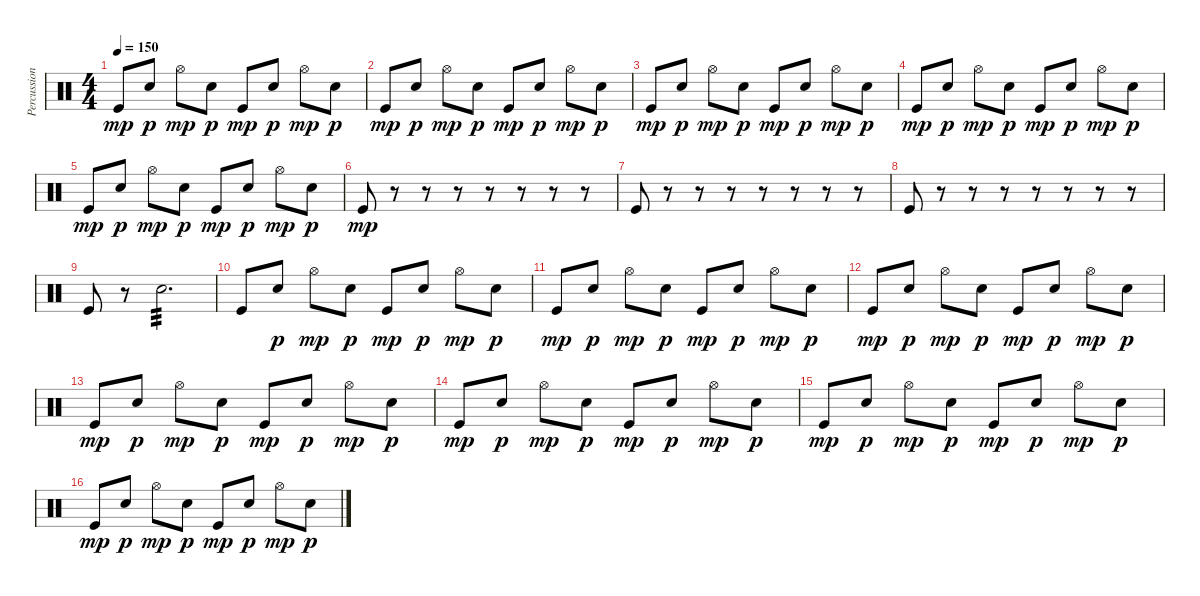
\track ("Percussion" "Percussion") {instrument percussion}
\staff {score}
\articulation defaults
\ts (4 4)
\tempo 150
\clef neutral
\ks c "Kick (hit)".8{dy mp} "Electric Snare (hit)".8{dy p} "Hi-Hat (open)".8{dy mp} "Electric Snare (hit)".8{dy p} "Kick (hit)".8{dy mp} "Electric Snare (hit)".8{dy p} "Hi-Hat (open)".8{dy mp} "Electric Snare (hit)".8{dy p}
|
"Kick (hit)".8{dy mp} "Electric Snare (hit)".8{dy p} "Hi-Hat (open)".8{dy mp} "Electric Snare (hit)".8{dy p} "Kick (hit)".8{dy mp} "Electric Snare (hit)".8{dy p} "Hi-Hat (open)".8{dy mp} "Electric Snare (hit)".8{dy p} |
"Kick (hit)".8{dy mp} "Electric Snare (hit)".8{dy p} "Hi-Hat (open)".8{dy mp} "Electric Snare (hit)".8{dy p} "Kick (hit)".8{dy mp} "Electric Snare (hit)".8{dy p} "Hi-Hat (open)".8{dy mp} "Electric Snare (hit)".8{dy p} |
"Kick (hit)".8{dy mp} "Electric Snare (hit)".8{dy p} "Hi-Hat (open)".8{dy mp} "Electric Snare (hit)".8{dy p} "Kick (hit)".8{dy mp} "Electric Snare (hit)".8{dy p} "Hi-Hat (open)".8{dy mp} "Electric Snare (hit)".8{dy p} |
"Kick (hit)".8{dy mp} "Electric Snare (hit)".8{dy p} "Hi-Hat (open)".8{dy mp} "Electric Snare (hit)".8{dy p} "Kick (hit)".8{dy mp} "Electric Snare (hit)".8{dy p} "Hi-Hat (open)".8{dy mp} "Electric Snare (hit)".8{dy p} |
"Kick (hit)".8{dy mp} r.8 r.8 r.8 r.8 r.8 r.8 r.8 |
"Kick (hit)".8 r.8 r.8 r.8 r.8 r.8 r.8 r.8 |
"Kick (hit)".8 r.8 r.8 r.8 r.8 r.8 r.8 r.8 |
"Kick (hit)".8 r.8{volume 0} "Electric Snare (hit)".2{d tp 3 volume 11} |
"Kick (hit)".8 "Electric Snare (hit)".8{dy p} "Hi-Hat (open)".8{dy mp} "Electric Snare (hit)".8{dy p} "Kick (hit)".8{dy mp} "Electric Snare (hit)".8{dy p} "Hi-Hat (open)".8{dy mp} "Electric Snare (hit)".8{dy p} |
"Kick (hit)".8{dy mp} "Electric Snare (hit)".8{dy p} "Hi-Hat (open)".8{dy mp} "Electric Snare (hit)".8{dy p} "Kick (hit)".8{dy mp} "Electric Snare (hit)".8{dy p} "Hi-Hat (open)".8{dy mp} "Electric Snare (hit)".8{dy p} |
"Kick (hit)".8{dy mp} "Electric Snare (hit)".8{dy p} "Hi-Hat (open)".8{dy mp} "Electric Snare (hit)".8{dy p} "Kick (hit)".8{dy mp} "Electric Snare (hit)".8{dy p} "Hi-Hat (open)".8{dy mp} "Electric Snare (hit)".8{dy p} |
"Kick (hit)".8{dy mp} "Electric Snare (hit)".8{dy p} "Hi-Hat (open)".8{dy mp} "Electric Snare (hit)".8{dy p} "Kick (hit)".8{dy mp} "Electric Snare (hit)".8{dy p} "Hi-Hat (open)".8{dy mp} "Electric Snare (hit)".8{dy p} |
"Kick (hit)".8{dy mp} "Electric Snare (hit)".8{dy p} "Hi-Hat (open)".8{dy mp} "Electric Snare (hit)".8{dy p} "Kick (hit)".8{dy mp} "Electric Snare (hit)".8{dy p} "Hi-Hat (open)".8{dy mp} "Electric Snare (hit)".8{dy p} |
"Kick (hit)".8{dy mp} "Electric Snare (hit)".8{dy p} "Hi-Hat (open)".8{dy mp} "Electric Snare (hit)".8{dy p} "Kick (hit)".8{dy mp} "Electric Snare (hit)".8{dy p} "Hi-Hat (open)".8{dy mp} "Electric Snare (hit)".8{dy p} |
"Kick (hit)".8{dy mp} "Electric Snare (hit)".8{dy p} "Hi-Hat (open)".8{dy mp} "Electric Snare (hit)".8{dy p} "Kick (hit)".8{dy mp} "Electric Snare (hit)".8{dy p} "Hi-Hat (open)".8{dy mp} "Electric Snare (hit)".8{dy p}
